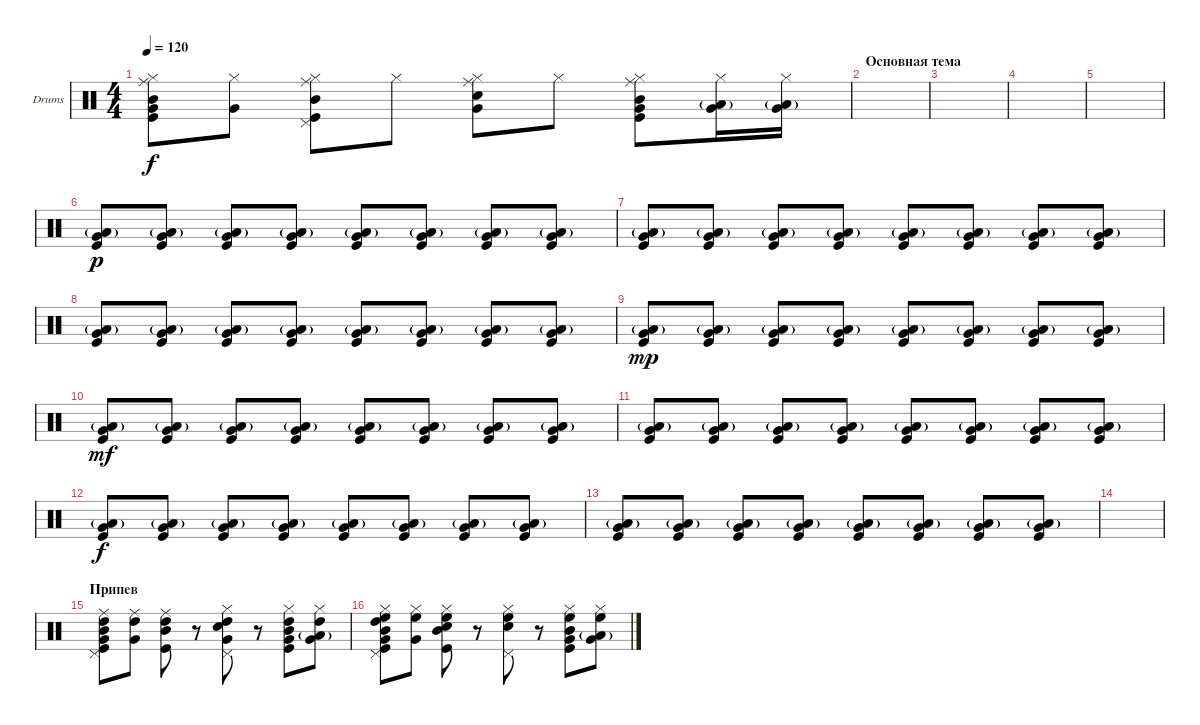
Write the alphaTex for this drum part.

\defaultSystemsLayout 4
\bracketExtendMode groupsimilarinstruments
\firstSystemTrackNameOrientation horizontal
\otherSystemsTrackNameOrientation horizontal
\track ("Drumkit" "Drums") {instrument percussion}
\staff {score}
\articulation defaults
\ts (4 4)
\tempo 120
\clef neutral
\ks c
("Mid Tom (hit)" "Very Low Tom (hit)" "Kick (hit)" "Ride (middle)" "Hi-Hat (closed)").8{dy f} ("Very Low Tom (hit)" "Hi-Hat (closed)").8 ("Mid Tom (hit)" "Kick (hit)" "Pedal Hi-Hat (hit)" "Ride (middle)" "Hi-Hat (closed)").8 "Hi-Hat (closed)".8 ("Very Low Tom (hit)" "Snare (hit) 2" "Ride (middle)" "Hi-Hat (closed)").8 "Hi-Hat (closed)".8 ("Mid Tom (hit)" "Very Low Tom (hit)" "Kick (hit)" "Ride (middle)" "Hi-Hat (closed)").8 ("Low Tom (hit)"{g} "Very Low Tom (hit)" "Hi-Hat (closed)").16 ("Low Tom (hit)"{g} "Very Low Tom (hit)" "Hi-Hat (closed)").16 |
\section ("" "Основная тема")
|
|
|
|
("Very Low Tom (hit)" "Low Tom (hit)"{g} "Kick (hit)").8{dy p} ("Very Low Tom (hit)" "Low Tom (hit)"{g} "Kick (hit)").8 ("Very Low Tom (hit)" "Low Tom (hit)"{g} "Kick (hit)").8 ("Very Low Tom (hit)" "Low Tom (hit)"{g} "Kick (hit)").8 ("Very Low Tom (hit)" "Low Tom (hit)"{g} "Kick (hit)").8 ("Very Low Tom (hit)" "Low Tom (hit)"{g} "Kick (hit)").8 ("Very Low Tom (hit)" "Low Tom (hit)"{g} "Kick (hit)").8 ("Very Low Tom (hit)" "Low Tom (hit)"{g} "Kick (hit)").8 |
("Very Low Tom (hit)" "Low Tom (hit)"{g} "Kick (hit)").8 ("Very Low Tom (hit)" "Low Tom (hit)"{g} "Kick (hit)").8 ("Very Low Tom (hit)" "Low Tom (hit)"{g} "Kick (hit)").8 ("Very Low Tom (hit)" "Low Tom (hit)"{g} "Kick (hit)").8 ("Very Low Tom (hit)" "Low Tom (hit)"{g} "Kick (hit)").8 ("Very Low Tom (hit)" "Low Tom (hit)"{g} "Kick (hit)").8 ("Very Low Tom (hit)" "Low Tom (hit)"{g} "Kick (hit)").8 ("Very Low Tom (hit)" "Low Tom (hit)"{g} "Kick (hit)").8 |
("Very Low Tom (hit)" "Low Tom (hit)"{g} "Kick (hit)").8 ("Very Low Tom (hit)" "Low Tom (hit)"{g} "Kick (hit)").8 ("Very Low Tom (hit)" "Low Tom (hit)"{g} "Kick (hit)").8 ("Very Low Tom (hit)" "Low Tom (hit)"{g} "Kick (hit)").8 ("Very Low Tom (hit)" "Low Tom (hit)"{g} "Kick (hit)").8 ("Very Low Tom (hit)" "Low Tom (hit)"{g} "Kick (hit)").8 ("Very Low Tom (hit)" "Low Tom (hit)"{g} "Kick (hit)").8 ("Very Low Tom (hit)" "Low Tom (hit)"{g} "Kick (hit)").8 |
("Very Low Tom (hit)" "Low Tom (hit)"{g} "Kick (hit)").8{dy mp} ("Very Low Tom (hit)" "Low Tom (hit)"{g} "Kick (hit)").8 ("Very Low Tom (hit)" "Low Tom (hit)"{g} "Kick (hit)").8 ("Very Low Tom (hit)" "Low Tom (hit)"{g} "Kick (hit)").8 ("Very Low Tom (hit)" "Low Tom (hit)"{g} "Kick (hit)").8 ("Very Low Tom (hit)" "Low Tom (hit)"{g} "Kick (hit)").8 ("Very Low Tom (hit)" "Low Tom (hit)"{g} "Kick (hit)").8 ("Very Low Tom (hit)" "Low Tom (hit)"{g} "Kick (hit)").8 |
("Very Low Tom (hit)" "Low Tom (hit)"{g} "Kick (hit)").8{dy mf} ("Very Low Tom (hit)" "Low Tom (hit)"{g} "Kick (hit)").8 ("Very Low Tom (hit)" "Low Tom (hit)"{g} "Kick (hit)").8 ("Very Low Tom (hit)" "Low Tom (hit)"{g} "Kick (hit)").8 ("Very Low Tom (hit)" "Low Tom (hit)"{g} "Kick (hit)").8 ("Very Low Tom (hit)" "Low Tom (hit)"{g} "Kick (hit)").8 ("Very Low Tom (hit)" "Low Tom (hit)"{g} "Kick (hit)").8 ("Very Low Tom (hit)" "Low Tom (hit)"{g} "Kick (hit)").8 |
("Very Low Tom (hit)" "Low Tom (hit)"{g} "Kick (hit)").8 ("Very Low Tom (hit)" "Low Tom (hit)"{g} "Kick (hit)").8 ("Very Low Tom (hit)" "Low Tom (hit)"{g} "Kick (hit)").8 ("Very Low Tom (hit)" "Low Tom (hit)"{g} "Kick (hit)").8 ("Very Low Tom (hit)" "Low Tom (hit)"{g} "Kick (hit)").8 ("Very Low Tom (hit)" "Low Tom (hit)"{g} "Kick (hit)").8 ("Very Low Tom (hit)" "Low Tom (hit)"{g} "Kick (hit)").8 ("Very Low Tom (hit)" "Low Tom (hit)"{g} "Kick (hit)").8 |
("Very Low Tom (hit)" "Low Tom (hit)"{g} "Kick (hit)").8{dy f} ("Very Low Tom (hit)" "Low Tom (hit)"{g} "Kick (hit)").8 ("Very Low Tom (hit)" "Low Tom (hit)"{g} "Kick (hit)").8 ("Very Low Tom (hit)" "Low Tom (hit)"{g} "Kick (hit)").8 ("Very Low Tom (hit)" "Low Tom (hit)"{g} "Kick (hit)").8 ("Very Low Tom (hit)" "Low Tom (hit)"{g} "Kick (hit)").8 ("Very Low Tom (hit)" "Low Tom (hit)"{g} "Kick (hit)").8 ("Very Low Tom (hit)" "Low Tom (hit)"{g} "Kick (hit)").8 |
("Very Low Tom (hit)" "Low Tom (hit)"{g} "Kick (hit)").8 ("Very Low Tom (hit)" "Low Tom (hit)"{g} "Kick (hit)").8 ("Very Low Tom (hit)" "Low Tom (hit)"{g} "Kick (hit)").8 ("Very Low Tom (hit)" "Low Tom (hit)"{g} "Kick (hit)").8 ("Very Low Tom (hit)" "Low Tom (hit)"{g} "Kick (hit)").8 ("Very Low Tom (hit)" "Low Tom (hit)"{g} "Kick (hit)").8 ("Very Low Tom (hit)" "Low Tom (hit)"{g} "Kick (hit)").8 ("Very Low Tom (hit)" "Low Tom (hit)"{g} "Kick (hit)").8 |
|
\section ("" "Припев")
("Mid Tom (hit)" "Very Low Tom (hit)" "Kick (hit)" "Pedal Hi-Hat (hit)" "Ride (middle)" "High Tom (hit)").8 ("Very Low Tom (hit)" "Ride (middle)" "High Tom (hit)").8 ("Mid Tom (hit)" "Kick (hit)" "Ride (middle)" "High Tom (hit)").8 r.8 ("Very Low Tom (hit)" "Snare (hit) 2" "Pedal Hi-Hat (hit)" "Hi-Hat (closed)" "High Tom (hit)").8 r.8 ("Mid Tom (hit)" "Very Low Tom (hit)" "Kick (hit)" "Hi-Hat (closed)" "High Tom (hit)").8 ("Low Tom (hit)"{g} "Very Low Tom (hit)" "Hi-Hat (closed)" "High Tom (hit)").8 |
("Mid Tom (hit)" "Very Low Tom (hit)" "Kick (hit)" "Hi-Hat (closed)" "Pedal Hi-Hat (hit)" "High Tom (hit)" "High Floor Tom (hit)").8 ("Very Low Tom (hit)" "Hi-Hat (closed)" "High Floor Tom (hit)").8 ("Mid Tom (hit)" "Kick (hit)" "Hi-Hat (closed)" "Snare (hit) 2" "High Floor Tom (hit)").8 r.8 ("Snare (hit) 2" "Pedal Hi-Hat (hit)" "Hi-Hat (closed)" "High Floor Tom (hit)").8 r.8 ("Mid Tom (hit)" "Very Low Tom (hit)" "Kick (hit)" "Hi-Hat (closed)" "High Floor Tom (hit)").8 ("Low Tom (hit)"{g} "Very Low Tom (hit)" "Hi-Hat (closed)" "High Floor Tom (hit)").8
